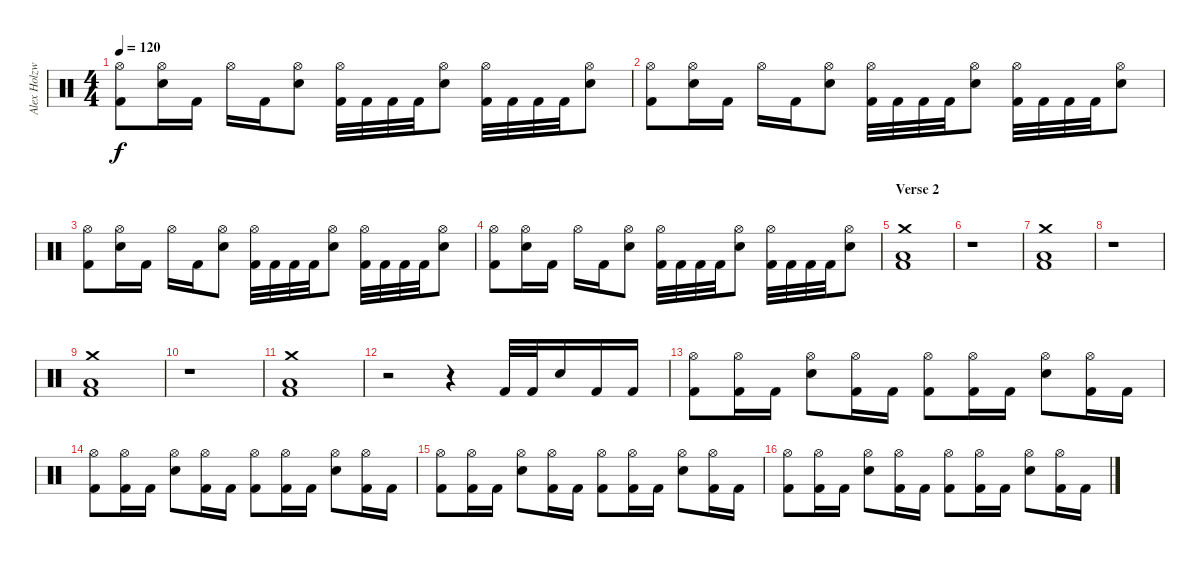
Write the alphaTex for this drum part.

\track ("Alex Holzwarth - Drums" "Alex Holzw") {instrument percussion}
\staff {score}
\articulation defaults
\ts (4 4)
\tempo 120
\clef neutral
\ks c
("Hi-Hat (open)" "Kick (hit) 2").8{dy f} ("Hi-Hat (open)" "Electric Snare (hit)").16 "Kick (hit) 2".16 "Hi-Hat (open)".16 "Kick (hit) 2".16 ("Hi-Hat (open)" "Electric Snare (hit)").8 ("Hi-Hat (open)" "Kick (hit) 2").32 "Kick (hit) 2".32 "Kick (hit) 2".32 "Kick (hit) 2".32 ("Hi-Hat (open)" "Electric Snare (hit)").8 ("Hi-Hat (open)" "Kick (hit) 2").32 "Kick (hit) 2".32 "Kick (hit) 2".32 "Kick (hit) 2".32 ("Hi-Hat (open)" "Electric Snare (hit)").8 |
("Hi-Hat (open)" "Kick (hit) 2").8 ("Hi-Hat (open)" "Electric Snare (hit)").16 "Kick (hit) 2".16 "Hi-Hat (open)".16 "Kick (hit) 2".16 ("Hi-Hat (open)" "Electric Snare (hit)").8 ("Hi-Hat (open)" "Kick (hit) 2").32 "Kick (hit) 2".32 "Kick (hit) 2".32 "Kick (hit) 2".32 ("Hi-Hat (open)" "Electric Snare (hit)").8 ("Hi-Hat (open)" "Kick (hit) 2").32 "Kick (hit) 2".32 "Kick (hit) 2".32 "Kick (hit) 2".32 ("Hi-Hat (open)" "Electric Snare (hit)").8 |
("Hi-Hat (open)" "Kick (hit) 2").8 ("Hi-Hat (open)" "Electric Snare (hit)").16 "Kick (hit) 2".16 "Hi-Hat (open)".16 "Kick (hit) 2".16 ("Hi-Hat (open)" "Electric Snare (hit)").8 ("Hi-Hat (open)" "Kick (hit) 2").32 "Kick (hit) 2".32 "Kick (hit) 2".32 "Kick (hit) 2".32 ("Hi-Hat (open)" "Electric Snare (hit)").8 ("Hi-Hat (open)" "Kick (hit) 2").32 "Kick (hit) 2".32 "Kick (hit) 2".32 "Kick (hit) 2".32 ("Hi-Hat (open)" "Electric Snare (hit)").8 |
("Hi-Hat (open)" "Kick (hit) 2").8 ("Hi-Hat (open)" "Electric Snare (hit)").16 "Kick (hit) 2".16 "Hi-Hat (open)".16 "Kick (hit) 2".16 ("Hi-Hat (open)" "Electric Snare (hit)").8 ("Hi-Hat (open)" "Kick (hit) 2").32 "Kick (hit) 2".32 "Kick (hit) 2".32 "Kick (hit) 2".32 ("Hi-Hat (open)" "Electric Snare (hit)").8 ("Hi-Hat (open)" "Kick (hit) 2").32 "Kick (hit) 2".32 "Kick (hit) 2".32 "Kick (hit) 2".32 ("Hi-Hat (open)" "Electric Snare (hit)").8 |
\section ("" "Verse 2")
("Crash medium (hit)" "Low Floor Tom (hit)" "Kick (hit) 2").1 |
r.1 |
("Crash medium (hit)" "Low Floor Tom (hit)" "Kick (hit) 2").1 |
r.1 |
("Crash medium (hit)" "Low Floor Tom (hit)" "Kick (hit) 2").1 |
r.1 |
("Crash medium (hit)" "Low Floor Tom (hit)" "Kick (hit) 2").1 |
r.2 r.4 "Kick (hit) 2".32 "Kick (hit) 2".32 "Electric Snare (hit)".16 "Kick (hit) 2".16 "Kick (hit) 2".16 |
("Hi-Hat (open)" "Kick (hit) 2").8 ("Hi-Hat (open)" "Kick (hit) 2").16 "Kick (hit) 2".16 ("Hi-Hat (open)" "Electric Snare (hit)").8 ("Hi-Hat (open)" "Kick (hit) 2").16 "Kick (hit) 2".16 ("Hi-Hat (open)" "Kick (hit) 2").8 ("Hi-Hat (open)" "Kick (hit) 2").16 "Kick (hit) 2".16 ("Hi-Hat (open)" "Electric Snare (hit)").8 ("Hi-Hat (open)" "Kick (hit) 2").16 "Kick (hit) 2".16 |
("Hi-Hat (open)" "Kick (hit) 2").8 ("Hi-Hat (open)" "Kick (hit) 2").16 "Kick (hit) 2".16 ("Hi-Hat (open)" "Electric Snare (hit)").8 ("Hi-Hat (open)" "Kick (hit) 2").16 "Kick (hit) 2".16 ("Hi-Hat (open)" "Kick (hit) 2").8 ("Hi-Hat (open)" "Kick (hit) 2").16 "Kick (hit) 2".16 ("Hi-Hat (open)" "Electric Snare (hit)").8 ("Hi-Hat (open)" "Kick (hit) 2").16 "Kick (hit) 2".16 |
("Hi-Hat (open)" "Kick (hit) 2").8 ("Hi-Hat (open)" "Kick (hit) 2").16 "Kick (hit) 2".16 ("Hi-Hat (open)" "Electric Snare (hit)").8 ("Hi-Hat (open)" "Kick (hit) 2").16 "Kick (hit) 2".16 ("Hi-Hat (open)" "Kick (hit) 2").8 ("Hi-Hat (open)" "Kick (hit) 2").16 "Kick (hit) 2".16 ("Hi-Hat (open)" "Electric Snare (hit)").8 ("Hi-Hat (open)" "Kick (hit) 2").16 "Kick (hit) 2".16 |
("Hi-Hat (open)" "Kick (hit) 2").8 ("Hi-Hat (open)" "Kick (hit) 2").16 "Kick (hit) 2".16 ("Hi-Hat (open)" "Electric Snare (hit)").8 ("Hi-Hat (open)" "Kick (hit) 2").16 "Kick (hit) 2".16 ("Hi-Hat (open)" "Kick (hit) 2").8 ("Hi-Hat (open)" "Kick (hit) 2").16 "Kick (hit) 2".16 ("Hi-Hat (open)" "Electric Snare (hit)").8 ("Hi-Hat (open)" "Kick (hit) 2").16 "Kick (hit) 2".16
